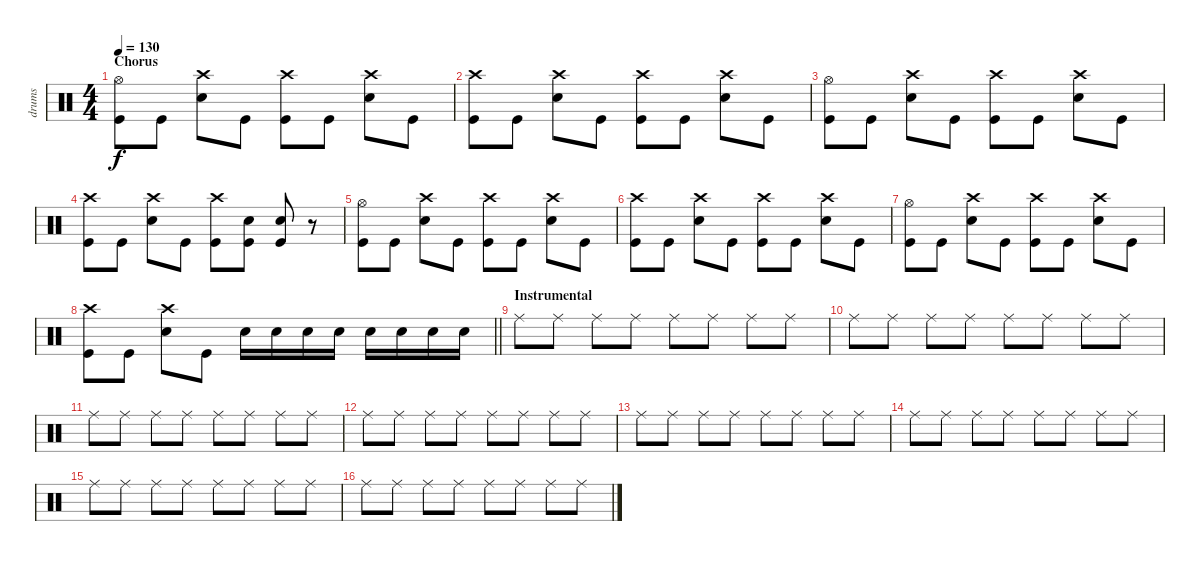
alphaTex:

\track ("drums" "drums") {instrument percussion}
\staff {score}
\articulation defaults
\ts (4 4)
\section ("" "Chorus")
\tempo 130
\clef neutral
\ks c
("Hi-Hat (open)" "Kick (hit)").8{dy f} "Kick (hit)".8 ("Crash high (hit)" "Snare (hit) 2").8 "Kick (hit)".8 ("Crash high (hit)" "Kick (hit)").8 "Kick (hit)".8 ("Crash high (hit)" "Snare (hit) 2").8 "Kick (hit)".8 |
("Crash high (hit)" "Kick (hit)").8 "Kick (hit)".8 ("Crash high (hit)" "Snare (hit) 2").8 "Kick (hit)".8 ("Crash high (hit)" "Kick (hit)").8 "Kick (hit)".8 ("Crash high (hit)" "Snare (hit) 2").8 "Kick (hit)".8 |
("Hi-Hat (open)" "Kick (hit)").8 "Kick (hit)".8 ("Crash high (hit)" "Snare (hit) 2").8 "Kick (hit)".8 ("Crash high (hit)" "Kick (hit)").8 "Kick (hit)".8 ("Crash high (hit)" "Snare (hit) 2").8 "Kick (hit)".8 |
("Crash high (hit)" "Kick (hit)").8 "Kick (hit)".8 ("Crash high (hit)" "Snare (hit) 2").8 "Kick (hit)".8 ("Crash high (hit)" "Kick (hit)").8 ("Snare (hit) 2" "Kick (hit)").8 ("Snare (hit) 2" "Kick (hit)").8 r.8 |
("Hi-Hat (open)" "Kick (hit)").8 "Kick (hit)".8 ("Crash high (hit)" "Snare (hit) 2").8 "Kick (hit)".8 ("Crash high (hit)" "Kick (hit)").8 "Kick (hit)".8 ("Crash high (hit)" "Snare (hit) 2").8 "Kick (hit)".8 |
("Crash high (hit)" "Kick (hit)").8 "Kick (hit)".8 ("Crash high (hit)" "Snare (hit) 2").8 "Kick (hit)".8 ("Crash high (hit)" "Kick (hit)").8 "Kick (hit)".8 ("Crash high (hit)" "Snare (hit) 2").8 "Kick (hit)".8 |
("Hi-Hat (open)" "Kick (hit)").8 "Kick (hit)".8 ("Crash high (hit)" "Snare (hit) 2").8 "Kick (hit)".8 ("Crash high (hit)" "Kick (hit)").8 "Kick (hit)".8 ("Crash high (hit)" "Snare (hit) 2").8 "Kick (hit)".8 |
\barLineRight lightlight
("Crash high (hit)" "Kick (hit)").8 "Kick (hit)".8 ("Crash high (hit)" "Snare (hit) 2").8 "Kick (hit)".8 "Snare (hit) 2".16 "Snare (hit) 2".16 "Snare (hit) 2".16 "Snare (hit) 2".16 "Snare (hit) 2".16 "Snare (hit) 2".16 "Snare (hit) 2".16 "Snare (hit) 2".16 |
\section ("" "Instrumental")
"Ride (middle)".8 "Ride (middle)".8 "Ride (middle)".8 "Ride (middle)".8 "Ride (middle)".8 "Ride (middle)".8 "Ride (middle)".8 "Ride (middle)".8 |
"Ride (middle)".8 "Ride (middle)".8 "Ride (middle)".8 "Ride (middle)".8 "Ride (middle)".8 "Ride (middle)".8 "Ride (middle)".8 "Ride (middle)".8 |
"Ride (middle)".8 "Ride (middle)".8 "Ride (middle)".8 "Ride (middle)".8 "Ride (middle)".8 "Ride (middle)".8 "Ride (middle)".8 "Ride (middle)".8 |
"Ride (middle)".8 "Ride (middle)".8 "Ride (middle)".8 "Ride (middle)".8 "Ride (middle)".8 "Ride (middle)".8 "Ride (middle)".8 "Ride (middle)".8 |
"Ride (middle)".8 "Ride (middle)".8 "Ride (middle)".8 "Ride (middle)".8 "Ride (middle)".8 "Ride (middle)".8 "Ride (middle)".8 "Ride (middle)".8 |
"Ride (middle)".8 "Ride (middle)".8 "Ride (middle)".8 "Ride (middle)".8 "Ride (middle)".8 "Ride (middle)".8 "Ride (middle)".8 "Ride (middle)".8 |
"Ride (middle)".8 "Ride (middle)".8 "Ride (middle)".8 "Ride (middle)".8 "Ride (middle)".8 "Ride (middle)".8 "Ride (middle)".8 "Ride (middle)".8 |
"Ride (middle)".8 "Ride (middle)".8 "Ride (middle)".8 "Ride (middle)".8 "Ride (middle)".8 "Ride (middle)".8 "Ride (middle)".8 "Ride (middle)".8
